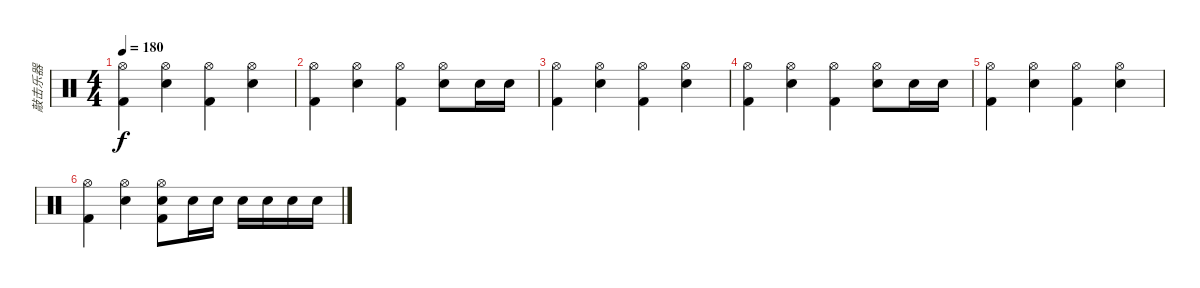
\track ("敲击乐器" "敲击乐器") {instrument percussion}
\staff {score}
\articulation defaults
\ts (4 4)
\tempo 180
\clef neutral
\ks c
("Hi-Hat (open)" "Kick (hit) 2").4{dy f} ("Hi-Hat (open)" "Snare (hit) 2").4 ("Hi-Hat (open)" "Kick (hit) 2").4 ("Hi-Hat (open)" "Snare (hit) 2").4 |
("Hi-Hat (open)" "Kick (hit) 2").4 ("Hi-Hat (open)" "Snare (hit) 2").4 ("Hi-Hat (open)" "Kick (hit) 2").4 ("Hi-Hat (open)" "Snare (hit) 2").8 "Snare (hit) 2".16 "Snare (hit) 2".16 |
("Hi-Hat (open)" "Kick (hit) 2").4 ("Hi-Hat (open)" "Snare (hit) 2").4 ("Hi-Hat (open)" "Kick (hit) 2").4 ("Hi-Hat (open)" "Snare (hit) 2").4 |
("Hi-Hat (open)" "Kick (hit) 2").4 ("Hi-Hat (open)" "Snare (hit) 2").4 ("Hi-Hat (open)" "Kick (hit) 2").4 ("Hi-Hat (open)" "Snare (hit) 2").8 "Snare (hit) 2".16 "Snare (hit) 2".16 |
("Hi-Hat (open)" "Kick (hit) 2").4 ("Hi-Hat (open)" "Snare (hit) 2").4 ("Hi-Hat (open)" "Kick (hit) 2").4 ("Hi-Hat (open)" "Snare (hit) 2").4 |
("Hi-Hat (open)" "Kick (hit) 2").4 ("Hi-Hat (open)" "Snare (hit) 2").4 ("Hi-Hat (open)" "Snare (hit) 2" "Kick (hit) 2").8 "Snare (hit) 2".16 "Snare (hit) 2".16 "Snare (hit) 2".16 "Snare (hit) 2".16 "Snare (hit) 2".16 "Snare (hit) 2".16
